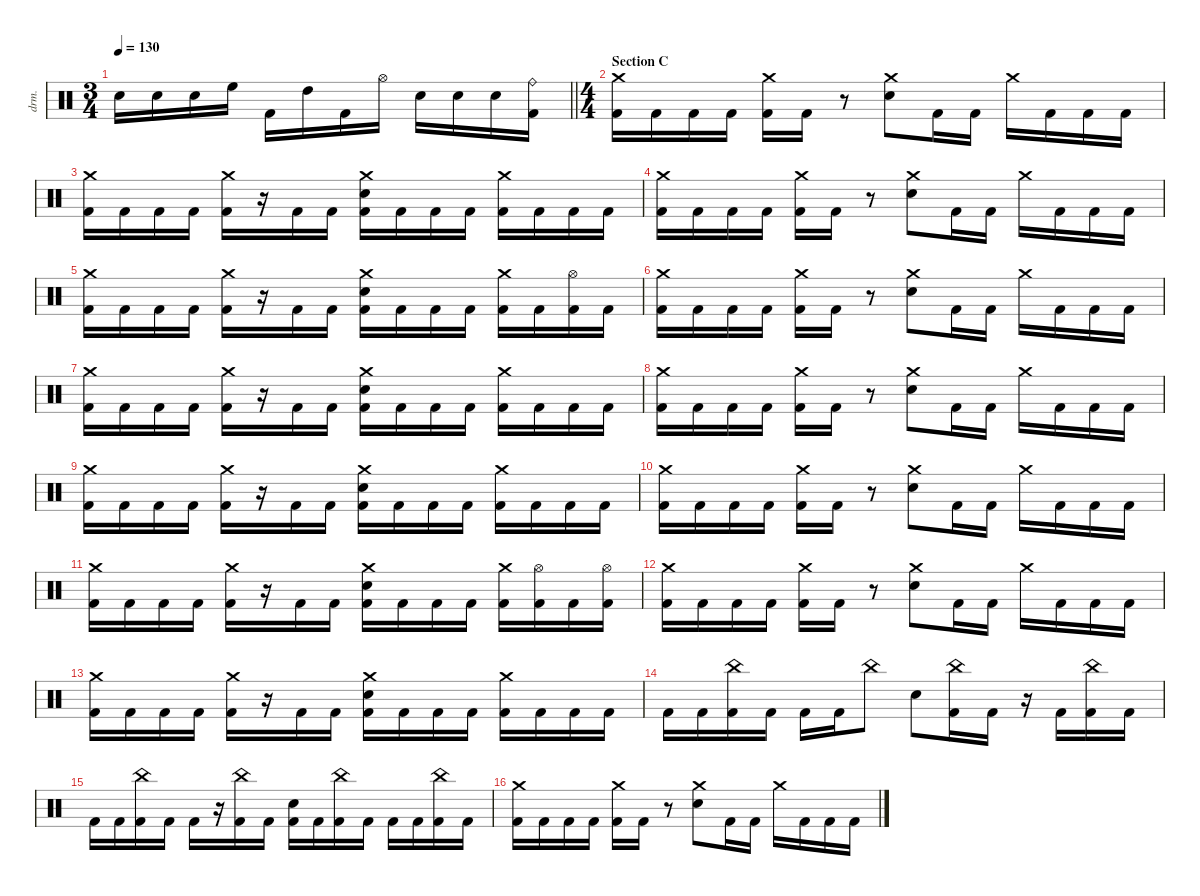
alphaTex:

\defaultSystemsLayout 4
\hideDynamics
\bracketExtendMode nobrackets
\otherSystemsTrackNameOrientation horizontal
\track ("Percussion" "drm.") {instrument percussion}
\staff {score}
\articulation defaults
\ts (3 4)
\tempo 130
\clef neutral
\barLineRight lightlight
\ks c "Snare (hit) 2".16{dy f beam Down} "Snare (hit) 2".16{beam Down} "Snare (hit) 2".16{beam Down} "High Floor Tom (hit)".16{beam Down} "Kick (hit) 2".16{beam Down} "High Tom (hit)".16{beam Down} "Kick (hit) 2".16{beam Down} "Hi-Hat (open)".16{beam Down} "Snare (hit) 2".16{beam Down} "Snare (hit) 2".16{beam Down} "Snare (hit) 2".16{beam Down}
("Ride (bell)" "Kick (hit) 2").16{beam Down} |
\ts (4 4)
\beaming (8 2 2 2 2)
\section ("" "Section C")
("Crash medium (hit)" "Kick (hit) 2").16{beam Down} "Kick (hit) 2".16{beam Down} "Kick (hit) 2".16{beam Down} "Kick (hit) 2".16{beam Down} ("Crash medium (hit)" "Kick (hit) 2").16{beam Down} "Kick (hit) 2".16{beam Down} r.8{beam Down} ("Crash medium (hit)" "Snare (hit) 2").8{beam Down} "Kick (hit) 2".16{beam Down} "Kick (hit) 2".16{beam Down} "Crash medium (hit)".16{beam Down} "Kick (hit) 2".16{beam Down} "Kick (hit) 2".16{beam Down} "Kick (hit) 2".16{beam Down} |
("Crash medium (hit)" "Kick (hit) 2").16{beam Down} "Kick (hit) 2".16{beam Down} "Kick (hit) 2".16{beam Down} "Kick (hit) 2".16{beam Down} ("Crash medium (hit)" "Kick (hit) 2").16{beam Down} r.16{beam Down} "Kick (hit) 2".16{beam Down} "Kick (hit) 2".16{beam Down} ("Crash medium (hit)" "Snare (hit) 2" "Kick (hit) 2").16{beam Down} "Kick (hit) 2".16{beam Down} "Kick (hit) 2".16{beam Down} "Kick (hit) 2".16{beam Down} ("Crash medium (hit)" "Kick (hit) 2").16{beam Down} "Kick (hit) 2".16{beam Down} "Kick (hit) 2".16{beam Down} "Kick (hit) 2".16{beam Down} |
("Crash medium (hit)" "Kick (hit) 2").16{beam Down} "Kick (hit) 2".16{beam Down} "Kick (hit) 2".16{beam Down} "Kick (hit) 2".16{beam Down} ("Crash medium (hit)" "Kick (hit) 2").16{beam Down} "Kick (hit) 2".16{beam Down} r.8{beam Down} ("Crash medium (hit)" "Snare (hit) 2").8{beam Down} "Kick (hit) 2".16{beam Down} "Kick (hit) 2".16{beam Down} "Crash medium (hit)".16{beam Down} "Kick (hit) 2".16{beam Down} "Kick (hit) 2".16{beam Down} "Kick (hit) 2".16{beam Down} |
("Crash medium (hit)" "Kick (hit) 2").16{beam Down} "Kick (hit) 2".16{beam Down} "Kick (hit) 2".16{beam Down} "Kick (hit) 2".16{beam Down} ("Crash medium (hit)" "Kick (hit) 2").16{beam Down} r.16{beam Down} "Kick (hit) 2".16{beam Down} "Kick (hit) 2".16{beam Down} ("Crash medium (hit)" "Snare (hit) 2" "Kick (hit) 2").16{beam Down} "Kick (hit) 2".16{beam Down} "Kick (hit) 2".16{beam Down} "Kick (hit) 2".16{beam Down} ("Crash medium (hit)" "Kick (hit) 2").16{beam Down} "Kick (hit) 2".16{beam Down} ("Hi-Hat (open)" "Kick (hit) 2").16{beam Down} "Kick (hit) 2".16{beam Down} |
("Crash medium (hit)" "Kick (hit) 2").16{beam Down} "Kick (hit) 2".16{beam Down} "Kick (hit) 2".16{beam Down} "Kick (hit) 2".16{beam Down} ("Crash medium (hit)" "Kick (hit) 2").16{beam Down} "Kick (hit) 2".16{beam Down} r.8{beam Down} ("Crash medium (hit)" "Snare (hit) 2").8{beam Down} "Kick (hit) 2".16{beam Down} "Kick (hit) 2".16{beam Down} "Crash medium (hit)".16{beam Down} "Kick (hit) 2".16{beam Down} "Kick (hit) 2".16{beam Down} "Kick (hit) 2".16{beam Down} |
("Crash medium (hit)" "Kick (hit) 2").16{beam Down} "Kick (hit) 2".16{beam Down} "Kick (hit) 2".16{beam Down} "Kick (hit) 2".16{beam Down} ("Crash medium (hit)" "Kick (hit) 2").16{beam Down} r.16{beam Down} "Kick (hit) 2".16{beam Down} "Kick (hit) 2".16{beam Down} ("Crash medium (hit)" "Snare (hit) 2" "Kick (hit) 2").16{beam Down} "Kick (hit) 2".16{beam Down} "Kick (hit) 2".16{beam Down} "Kick (hit) 2".16{beam Down} ("Crash medium (hit)" "Kick (hit) 2").16{beam Down} "Kick (hit) 2".16{beam Down} "Kick (hit) 2".16{beam Down} "Kick (hit) 2".16{beam Down} |
("Crash medium (hit)" "Kick (hit) 2").16{beam Down} "Kick (hit) 2".16{beam Down} "Kick (hit) 2".16{beam Down} "Kick (hit) 2".16{beam Down} ("Crash medium (hit)" "Kick (hit) 2").16{beam Down} "Kick (hit) 2".16{beam Down} r.8{beam Down} ("Crash medium (hit)" "Snare (hit) 2").8{beam Down} "Kick (hit) 2".16{beam Down} "Kick (hit) 2".16{beam Down} "Crash medium (hit)".16{beam Down} "Kick (hit) 2".16{beam Down} "Kick (hit) 2".16{beam Down} "Kick (hit) 2".16{beam Down} |
("Crash medium (hit)" "Kick (hit) 2").16{beam Down} "Kick (hit) 2".16{beam Down} "Kick (hit) 2".16{beam Down} "Kick (hit) 2".16{beam Down} ("Crash medium (hit)" "Kick (hit) 2").16{beam Down} r.16{beam Down} "Kick (hit) 2".16{beam Down} "Kick (hit) 2".16{beam Down} ("Crash medium (hit)" "Snare (hit) 2" "Kick (hit) 2").16{beam Down} "Kick (hit) 2".16{beam Down} "Kick (hit) 2".16{beam Down} "Kick (hit) 2".16{beam Down} ("Crash medium (hit)" "Kick (hit) 2").16{beam Down} "Kick (hit) 2".16{beam Down} "Kick (hit) 2".16{beam Down} "Kick (hit) 2".16{beam Down} |
("Crash medium (hit)" "Kick (hit) 2").16{beam Down} "Kick (hit) 2".16{beam Down} "Kick (hit) 2".16{beam Down} "Kick (hit) 2".16{beam Down} ("Crash medium (hit)" "Kick (hit) 2").16{beam Down} "Kick (hit) 2".16{beam Down} r.8{beam Down} ("Crash medium (hit)" "Snare (hit) 2").8{beam Down} "Kick (hit) 2".16{beam Down} "Kick (hit) 2".16{beam Down} "Crash medium (hit)".16{beam Down} "Kick (hit) 2".16{beam Down} "Kick (hit) 2".16{beam Down} "Kick (hit) 2".16{beam Down} |
("Crash medium (hit)" "Kick (hit) 2").16{beam Down} "Kick (hit) 2".16{beam Down} "Kick (hit) 2".16{beam Down} "Kick (hit) 2".16{beam Down} ("Crash medium (hit)" "Kick (hit) 2").16{beam Down} r.16{beam Down} "Kick (hit) 2".16{beam Down} "Kick (hit) 2".16{beam Down} ("Crash medium (hit)" "Snare (hit) 2" "Kick (hit) 2").16{beam Down} "Kick (hit) 2".16{beam Down} "Kick (hit) 2".16{beam Down} "Kick (hit) 2".16{beam Down} ("Crash medium (hit)" "Kick (hit) 2").16{beam Down} ("Hi-Hat (open)" "Kick (hit) 2").16{beam Down} "Kick (hit) 2".16{beam Down} ("Hi-Hat (open)" "Kick (hit) 2").16{beam Down} |
("Crash medium (hit)" "Kick (hit) 2").16{beam Down} "Kick (hit) 2".16{beam Down} "Kick (hit) 2".16{beam Down} "Kick (hit) 2".16{beam Down} ("Crash medium (hit)" "Kick (hit) 2").16{beam Down} "Kick (hit) 2".16{beam Down} r.8{beam Down} ("Crash medium (hit)" "Snare (hit) 2").8{beam Down} "Kick (hit) 2".16{beam Down} "Kick (hit) 2".16{beam Down} "Crash medium (hit)".16{beam Down} "Kick (hit) 2".16{beam Down} "Kick (hit) 2".16{beam Down} "Kick (hit) 2".16{beam Down} |
("Crash medium (hit)" "Kick (hit) 2").16{beam Down} "Kick (hit) 2".16{beam Down} "Kick (hit) 2".16{beam Down} "Kick (hit) 2".16{beam Down} ("Crash medium (hit)" "Kick (hit) 2").16{beam Down} r.16{beam Down} "Kick (hit) 2".16{beam Down} "Kick (hit) 2".16{beam Down} ("Crash medium (hit)" "Snare (hit) 2" "Kick (hit) 2").16{beam Down} "Kick (hit) 2".16{beam Down} "Kick (hit) 2".16{beam Down} "Kick (hit) 2".16{beam Down} ("Crash medium (hit)" "Kick (hit) 2").16{beam Down} "Kick (hit) 2".16{beam Down} "Kick (hit) 2".16{beam Down} "Kick (hit) 2".16{beam Down} |
"Kick (hit) 2".16{beam Down} "Kick (hit) 2".16{beam Down} ("China (hit)" "Kick (hit) 2").16{beam Down} "Kick (hit) 2".16{beam Down} "Kick (hit) 2".16{beam Down} "Kick (hit) 2".16{beam Down} "China (hit)".8{beam Down} "Snare (hit) 2".8{beam Down} ("China (hit)" "Kick (hit) 2").16{beam Down} "Kick (hit) 2".16{beam Down} r.16{beam Down} "Kick (hit) 2".16{beam Down} ("China (hit)" "Kick (hit) 2").16{beam Down} "Kick (hit) 2".16{beam Down} |
"Kick (hit) 2".16{beam Down} "Kick (hit) 2".16{beam Down} ("China (hit)" "Kick (hit) 2").16{beam Down} "Kick (hit) 2".16{beam Down} "Kick (hit) 2".16{beam Down} r.16{beam Down} ("China (hit)" "Kick (hit) 2").16{beam Down} "Kick (hit) 2".16{beam Down} ("Snare (hit) 2" "Kick (hit) 2").16{beam Down} "Kick (hit) 2".16{beam Down} ("China (hit)" "Kick (hit) 2").16{beam Down} "Kick (hit) 2".16{beam Down} "Kick (hit) 2".16{beam Down} "Kick (hit) 2".16{beam Down} ("China (hit)" "Kick (hit) 2").16{beam Down} "Kick (hit) 2".16{beam Down} |
("Crash medium (hit)" "Kick (hit) 2").16{beam Down} "Kick (hit) 2".16{beam Down} "Kick (hit) 2".16{beam Down} "Kick (hit) 2".16{beam Down} ("Crash medium (hit)" "Kick (hit) 2").16{beam Down} "Kick (hit) 2".16{beam Down} r.8{beam Down} ("Crash medium (hit)" "Snare (hit) 2").8{beam Down} "Kick (hit) 2".16{beam Down} "Kick (hit) 2".16{beam Down} "Crash medium (hit)".16{beam Down} "Kick (hit) 2".16{beam Down} "Kick (hit) 2".16{beam Down} "Kick (hit) 2".16{beam Down}
